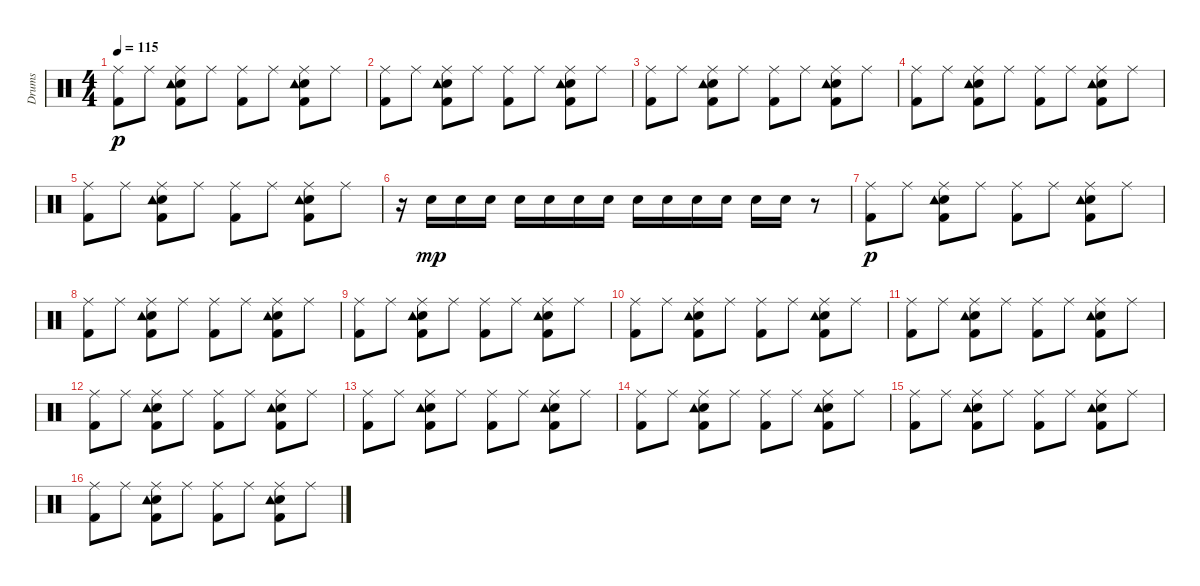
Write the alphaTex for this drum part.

\track ("Drums" "Drums") {instrument percussion}
\staff {score}
\articulation defaults
\ts (4 4)
\tempo 115
\clef neutral
\ks c
("Kick (hit) 2" "Ride (middle)").8{dy p} "Ride (middle)".8 ("Kick (hit) 2" "Snare (hit) 2" "Tambourine (hit)" "Ride (middle)").8 "Ride (middle)".8 ("Kick (hit) 2" "Ride (middle)").8 "Ride (middle)".8 ("Kick (hit) 2" "Snare (hit) 2" "Tambourine (hit)" "Ride (middle)").8 "Ride (middle)".8 |
("Kick (hit) 2" "Ride (middle)").8 "Ride (middle)".8 ("Kick (hit) 2" "Snare (hit) 2" "Tambourine (hit)" "Ride (middle)").8 "Ride (middle)".8 ("Kick (hit) 2" "Ride (middle)").8 "Ride (middle)".8 ("Kick (hit) 2" "Snare (hit) 2" "Tambourine (hit)" "Ride (middle)").8 "Ride (middle)".8 |
("Kick (hit) 2" "Ride (middle)").8 "Ride (middle)".8 ("Kick (hit) 2" "Snare (hit) 2" "Tambourine (hit)" "Ride (middle)").8 "Ride (middle)".8 ("Kick (hit) 2" "Ride (middle)").8 "Ride (middle)".8 ("Kick (hit) 2" "Snare (hit) 2" "Tambourine (hit)" "Ride (middle)").8 "Ride (middle)".8 |
("Kick (hit) 2" "Ride (middle)").8 "Ride (middle)".8 ("Kick (hit) 2" "Snare (hit) 2" "Ride (middle)" "Tambourine (hit)").8 "Ride (middle)".8 ("Kick (hit) 2" "Ride (middle)").8 "Ride (middle)".8 ("Kick (hit) 2" "Snare (hit) 2" "Ride (middle)" "Tambourine (hit)").8 "Ride (middle)".8 |
("Kick (hit) 2" "Ride (middle)").8 "Ride (middle)".8 ("Kick (hit) 2" "Snare (hit) 2" "Ride (middle)" "Tambourine (hit)").8 "Ride (middle)".8 ("Kick (hit) 2" "Ride (middle)").8 "Ride (middle)".8 ("Kick (hit) 2" "Snare (hit) 2" "Ride (middle)" "Tambourine (hit)").8 "Ride (middle)".8 |
r.16 "Snare (hit) 2".16{dy mp} "Snare (hit) 2".16 "Snare (hit) 2".16 "Snare (hit) 2".16 "Snare (hit) 2".16 "Snare (hit) 2".16 "Snare (hit) 2".16 "Snare (hit) 2".16 "Snare (hit) 2".16 "Snare (hit) 2".16 "Snare (hit) 2".16 "Snare (hit) 2".16 "Snare (hit) 2".16 r.8 |
("Kick (hit) 2" "Ride (middle)").8{dy p} "Ride (middle)".8 ("Kick (hit) 2" "Snare (hit) 2" "Tambourine (hit)" "Ride (middle)").8 "Ride (middle)".8 ("Kick (hit) 2" "Ride (middle)").8 "Ride (middle)".8 ("Kick (hit) 2" "Snare (hit) 2" "Tambourine (hit)" "Ride (middle)").8 "Ride (middle)".8 |
("Kick (hit) 2" "Ride (middle)").8 "Ride (middle)".8 ("Snare (hit) 2" "Kick (hit) 2" "Tambourine (hit)" "Ride (middle)").8 "Ride (middle)".8 ("Kick (hit) 2" "Ride (middle)").8 "Ride (middle)".8 ("Snare (hit) 2" "Kick (hit) 2" "Tambourine (hit)" "Ride (middle)").8 "Ride (middle)".8 |
("Kick (hit) 2" "Ride (middle)").8 "Ride (middle)".8 ("Kick (hit) 2" "Snare (hit) 2" "Tambourine (hit)" "Ride (middle)").8 "Ride (middle)".8 ("Kick (hit) 2" "Ride (middle)").8 "Ride (middle)".8 ("Kick (hit) 2" "Snare (hit) 2" "Tambourine (hit)" "Ride (middle)").8 "Ride (middle)".8 |
("Kick (hit) 2" "Ride (middle)").8 "Ride (middle)".8 ("Snare (hit) 2" "Kick (hit) 2" "Tambourine (hit)" "Ride (middle)").8 "Ride (middle)".8 ("Kick (hit) 2" "Ride (middle)").8 "Ride (middle)".8 ("Snare (hit) 2" "Kick (hit) 2" "Tambourine (hit)" "Ride (middle)").8 "Ride (middle)".8 |
("Kick (hit) 2" "Ride (middle)").8 "Ride (middle)".8 ("Kick (hit) 2" "Snare (hit) 2" "Tambourine (hit)" "Ride (middle)").8 "Ride (middle)".8 ("Kick (hit) 2" "Ride (middle)").8 "Ride (middle)".8 ("Kick (hit) 2" "Snare (hit) 2" "Tambourine (hit)" "Ride (middle)").8 "Ride (middle)".8 |
("Kick (hit) 2" "Ride (middle)").8 "Ride (middle)".8 ("Snare (hit) 2" "Kick (hit) 2" "Tambourine (hit)" "Ride (middle)").8 "Ride (middle)".8 ("Kick (hit) 2" "Ride (middle)").8 "Ride (middle)".8 ("Snare (hit) 2" "Kick (hit) 2" "Tambourine (hit)" "Ride (middle)").8 "Ride (middle)".8 |
("Kick (hit) 2" "Ride (middle)").8 "Ride (middle)".8 ("Kick (hit) 2" "Snare (hit) 2" "Tambourine (hit)" "Ride (middle)").8 "Ride (middle)".8 ("Kick (hit) 2" "Ride (middle)").8 "Ride (middle)".8 ("Kick (hit) 2" "Snare (hit) 2" "Tambourine (hit)" "Ride (middle)").8 "Ride (middle)".8 |
("Kick (hit) 2" "Ride (middle)").8 "Ride (middle)".8 ("Snare (hit) 2" "Kick (hit) 2" "Tambourine (hit)" "Ride (middle)").8 "Ride (middle)".8 ("Kick (hit) 2" "Ride (middle)").8 "Ride (middle)".8 ("Snare (hit) 2" "Kick (hit) 2" "Tambourine (hit)" "Ride (middle)").8 "Ride (middle)".8 |
("Kick (hit) 2" "Ride (middle)").8 "Ride (middle)".8 ("Kick (hit) 2" "Snare (hit) 2" "Tambourine (hit)" "Ride (middle)").8 "Ride (middle)".8 ("Kick (hit) 2" "Ride (middle)").8 "Ride (middle)".8 ("Kick (hit) 2" "Snare (hit) 2" "Tambourine (hit)" "Ride (middle)").8 "Ride (middle)".8 |
("Kick (hit) 2" "Ride (middle)").8 "Ride (middle)".8 ("Snare (hit) 2" "Kick (hit) 2" "Tambourine (hit)" "Ride (middle)").8 "Ride (middle)".8 ("Kick (hit) 2" "Ride (middle)").8 "Ride (middle)".8 ("Snare (hit) 2" "Kick (hit) 2" "Tambourine (hit)" "Ride (middle)").8 "Ride (middle)".8
